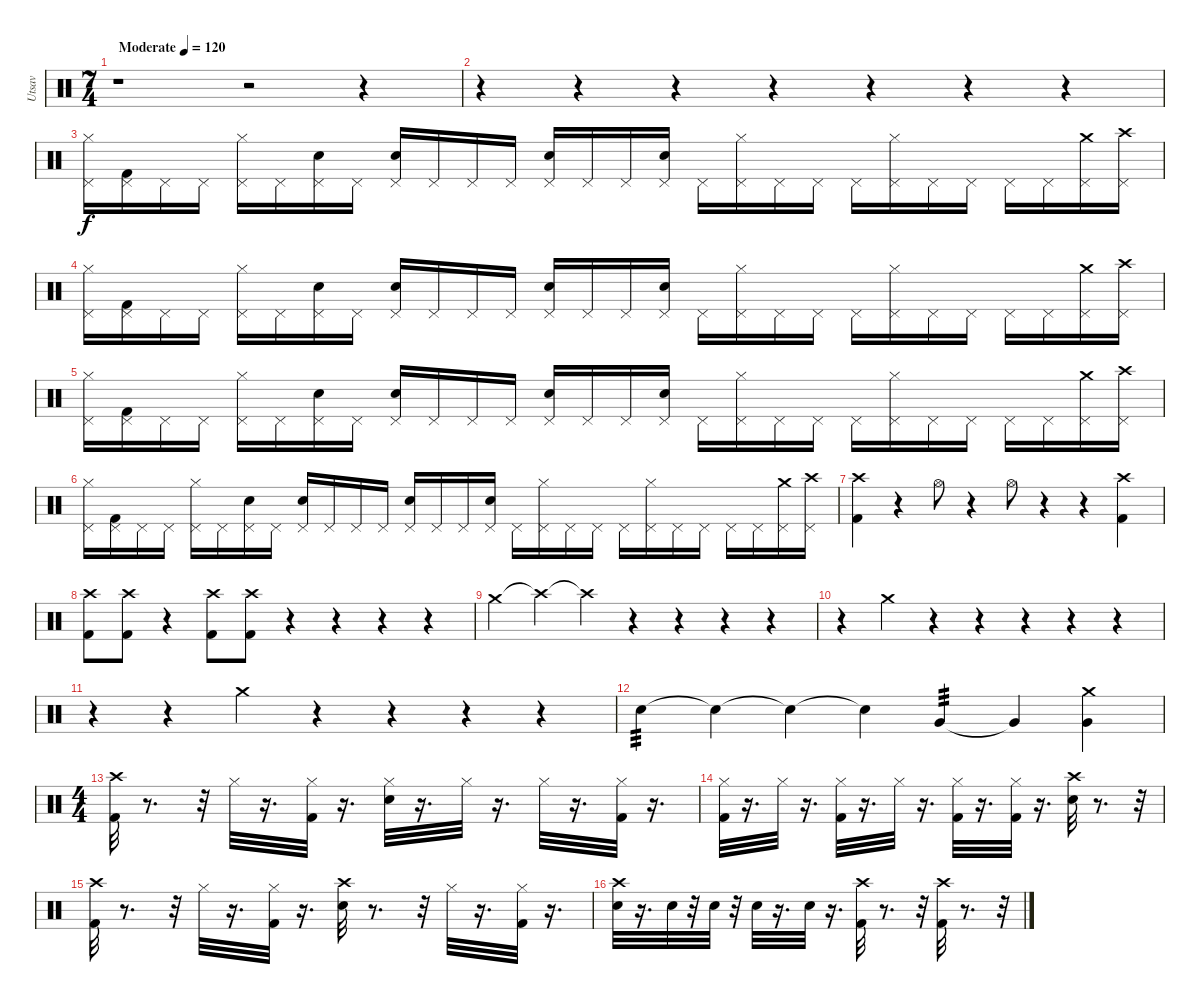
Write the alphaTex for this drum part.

\track ("Utsav" "Utsav") {instrument percussion}
\staff {score}
\articulation defaults
\ts (7 4)
\tempo (120 "Moderate")
\clef neutral
\ks c
r.1{dy f} r.2 r.4 |
r.4 r.4 r.4 r.4 r.4 r.4 r.4 |
("Hi-Hat (closed)" "Pedal Hi-Hat (hit)").16 ("Kick (hit) 2" "Pedal Hi-Hat (hit)").16 "Pedal Hi-Hat (hit)".16 "Pedal Hi-Hat (hit)".16 ("Hi-Hat (closed)" "Pedal Hi-Hat (hit)").16 "Pedal Hi-Hat (hit)".16 ("Snare (hit) 2" "Pedal Hi-Hat (hit)").16 "Pedal Hi-Hat (hit)".16 ("Electric Snare (hit)" "Pedal Hi-Hat (hit)").16 "Pedal Hi-Hat (hit)".16 "Pedal Hi-Hat (hit)".16 "Pedal Hi-Hat (hit)".16 ("Snare (hit) 2" "Pedal Hi-Hat (hit)").16 "Pedal Hi-Hat (hit)".16 "Pedal Hi-Hat (hit)".16 ("Electric Snare (hit)" "Pedal Hi-Hat (hit)").16 "Pedal Hi-Hat (hit)".16 ("Hi-Hat (closed)" "Pedal Hi-Hat (hit)").16 "Pedal Hi-Hat (hit)".16 "Pedal Hi-Hat (hit)".16 "Pedal Hi-Hat (hit)".16 ("Hi-Hat (closed)" "Pedal Hi-Hat (hit)").16 "Pedal Hi-Hat (hit)".16 "Pedal Hi-Hat (hit)".16 "Pedal Hi-Hat (hit)".16 "Pedal Hi-Hat (hit)".16 ("Crash medium (hit)" "Pedal Hi-Hat (hit)").16 ("Crash high (hit)" "Pedal Hi-Hat (hit)").16 |
("Hi-Hat (closed)" "Pedal Hi-Hat (hit)").16 ("Kick (hit) 2" "Pedal Hi-Hat (hit)").16 "Pedal Hi-Hat (hit)".16 "Pedal Hi-Hat (hit)".16 ("Hi-Hat (closed)" "Pedal Hi-Hat (hit)").16 "Pedal Hi-Hat (hit)".16 ("Snare (hit) 2" "Pedal Hi-Hat (hit)").16 "Pedal Hi-Hat (hit)".16 ("Electric Snare (hit)" "Pedal Hi-Hat (hit)").16 "Pedal Hi-Hat (hit)".16 "Pedal Hi-Hat (hit)".16 "Pedal Hi-Hat (hit)".16 ("Snare (hit) 2" "Pedal Hi-Hat (hit)").16 "Pedal Hi-Hat (hit)".16 "Pedal Hi-Hat (hit)".16 ("Electric Snare (hit)" "Pedal Hi-Hat (hit)").16 "Pedal Hi-Hat (hit)".16 ("Hi-Hat (closed)" "Pedal Hi-Hat (hit)").16 "Pedal Hi-Hat (hit)".16 "Pedal Hi-Hat (hit)".16 "Pedal Hi-Hat (hit)".16 ("Hi-Hat (closed)" "Pedal Hi-Hat (hit)").16 "Pedal Hi-Hat (hit)".16 "Pedal Hi-Hat (hit)".16 "Pedal Hi-Hat (hit)".16 "Pedal Hi-Hat (hit)".16 ("Crash medium (hit)" "Pedal Hi-Hat (hit)").16 ("Crash high (hit)" "Pedal Hi-Hat (hit)").16 |
("Hi-Hat (closed)" "Pedal Hi-Hat (hit)").16 ("Kick (hit) 2" "Pedal Hi-Hat (hit)").16 "Pedal Hi-Hat (hit)".16 "Pedal Hi-Hat (hit)".16 ("Hi-Hat (closed)" "Pedal Hi-Hat (hit)").16 "Pedal Hi-Hat (hit)".16 ("Snare (hit) 2" "Pedal Hi-Hat (hit)").16 "Pedal Hi-Hat (hit)".16 ("Electric Snare (hit)" "Pedal Hi-Hat (hit)").16 "Pedal Hi-Hat (hit)".16 "Pedal Hi-Hat (hit)".16 "Pedal Hi-Hat (hit)".16 ("Snare (hit) 2" "Pedal Hi-Hat (hit)").16 "Pedal Hi-Hat (hit)".16 "Pedal Hi-Hat (hit)".16 ("Electric Snare (hit)" "Pedal Hi-Hat (hit)").16 "Pedal Hi-Hat (hit)".16 ("Hi-Hat (closed)" "Pedal Hi-Hat (hit)").16 "Pedal Hi-Hat (hit)".16 "Pedal Hi-Hat (hit)".16 "Pedal Hi-Hat (hit)".16 ("Hi-Hat (closed)" "Pedal Hi-Hat (hit)").16 "Pedal Hi-Hat (hit)".16 "Pedal Hi-Hat (hit)".16 "Pedal Hi-Hat (hit)".16 "Pedal Hi-Hat (hit)".16 ("Crash medium (hit)" "Pedal Hi-Hat (hit)").16 ("Crash high (hit)" "Pedal Hi-Hat (hit)").16 |
("Hi-Hat (closed)" "Pedal Hi-Hat (hit)").16 ("Kick (hit) 2" "Pedal Hi-Hat (hit)").16 "Pedal Hi-Hat (hit)".16 "Pedal Hi-Hat (hit)".16 ("Hi-Hat (closed)" "Pedal Hi-Hat (hit)").16 "Pedal Hi-Hat (hit)".16 ("Snare (hit) 2" "Pedal Hi-Hat (hit)").16 "Pedal Hi-Hat (hit)".16 ("Electric Snare (hit)" "Pedal Hi-Hat (hit)").16 "Pedal Hi-Hat (hit)".16 "Pedal Hi-Hat (hit)".16 "Pedal Hi-Hat (hit)".16 ("Snare (hit) 2" "Pedal Hi-Hat (hit)").16 "Pedal Hi-Hat (hit)".16 "Pedal Hi-Hat (hit)".16 ("Electric Snare (hit)" "Pedal Hi-Hat (hit)").16 "Pedal Hi-Hat (hit)".16 ("Hi-Hat (closed)" "Pedal Hi-Hat (hit)").16 "Pedal Hi-Hat (hit)".16 "Pedal Hi-Hat (hit)".16 "Pedal Hi-Hat (hit)".16 ("Hi-Hat (closed)" "Pedal Hi-Hat (hit)").16 "Pedal Hi-Hat (hit)".16 "Pedal Hi-Hat (hit)".16 "Pedal Hi-Hat (hit)".16 "Pedal Hi-Hat (hit)".16 ("Crash medium (hit)" "Pedal Hi-Hat (hit)").16 ("Crash high (hit)" "Pedal Hi-Hat (hit)").16 |
("Crash high (hit)" "Kick (hit) 2").4 r.4 "Hi-Hat (open)".8 r.4 "Hi-Hat (open)".8 r.4 r.4 ("Crash high (hit)" "Kick (hit) 2").4 |
("Crash high (hit)" "Kick (hit) 2").8 ("Crash high (hit)" "Kick (hit) 2").8 r.4 ("Crash high (hit)" "Kick (hit) 2").8 ("Crash high (hit)" "Kick (hit) 2").8 r.4 r.4 r.4 r.4 |
"Crash medium (hit)".4 "Crash high (hit)"{t}.4 "Crash high (hit)"{t}.4 r.4 r.4 r.4 r.4 |
r.4 "Crash medium (hit)".4 r.4 r.4 r.4 r.4 r.4 |
r.4 r.4 "Crash medium (hit)".4 r.4 r.4 r.4 r.4 |
"Snare (hit) 2".4{tp 3} "Snare (hit) 2"{t}.4 "Snare (hit) 2"{t}.4 "Snare (hit) 2"{t}.4 "Very Low Tom (hit)".4{tp 3} "Very Low Tom (hit)"{t}.4 ("Crash medium (hit)" "Very Low Tom (hit)").4 |
\ts (4 4)
("Crash high (hit)" "Kick (hit) 2").32 r.8{d} r.32 "Hi-Hat (closed)".32 r.16{d} ("Kick (hit) 2" "Hi-Hat (closed)").32 r.16{d} ("Hi-Hat (closed)" "Snare (hit) 2").32 r.16{d} "Hi-Hat (closed)".32 r.16{d} "Hi-Hat (closed)".32 r.16{d} ("Kick (hit) 2" "Hi-Hat (closed)").32 r.16{d} |
("Hi-Hat (closed)" "Kick (hit) 2").32 r.16{d} "Hi-Hat (closed)".32 r.16{d} ("Hi-Hat (closed)" "Kick (hit) 2").32 r.16{d} "Hi-Hat (closed)".32 r.16{d} ("Hi-Hat (closed)" "Kick (hit) 2").32 r.16{d} ("Hi-Hat (closed)" "Kick (hit) 2").32 r.16{d} ("Crash high (hit)" "Snare (hit) 2").32 r.8{d} r.32 |
("Kick (hit) 2" "Crash high (hit)").32 r.8{d} r.32 "Hi-Hat (closed)".32 r.16{d} ("Hi-Hat (closed)" "Kick (hit) 2").32 r.16{d} ("Crash high (hit)" "Snare (hit) 2").32 r.8{d} r.32 "Hi-Hat (closed)".32 r.16{d} ("Kick (hit) 2" "Hi-Hat (closed)").32 r.16{d} |
("Crash high (hit)" "Snare (hit) 2").32 r.16{d} "Snare (hit) 2".32 r.32 "Snare (hit) 2".32 r.32 "Snare (hit) 2".32 r.16{d} "Snare (hit) 2".32 r.16{d} ("Kick (hit) 2" "Crash high (hit)").32 r.8{d} r.32 ("Kick (hit) 2" "Crash high (hit)").32 r.8{d} r.32
